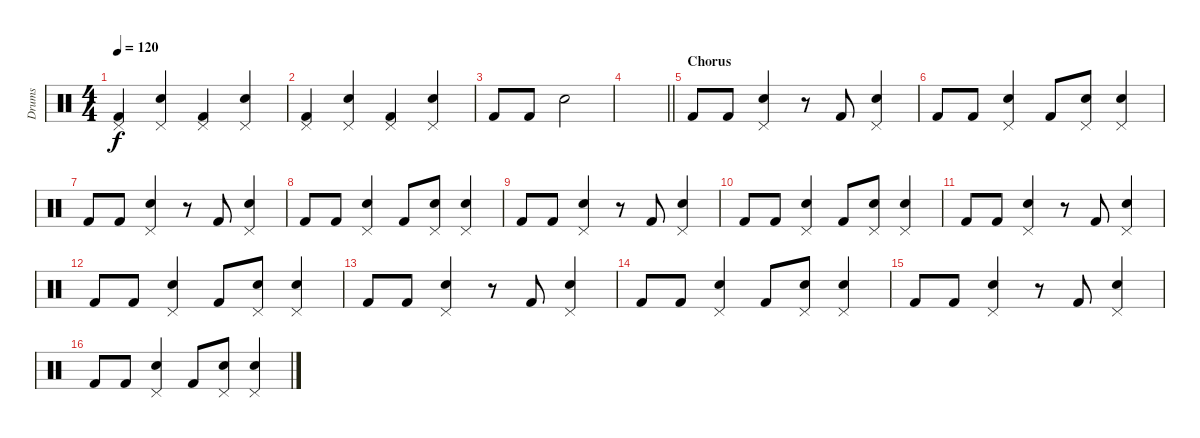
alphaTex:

\track ("Drums" "Drums") {instrument percussion}
\staff {score}
\articulation defaults
\ts (4 4)
\tempo 120
\clef neutral
\ks c
("Pedal Hi-Hat (hit)" "Kick (hit) 2").4{dy f} ("Snare (hit) 2" "Pedal Hi-Hat (hit)").4 ("Pedal Hi-Hat (hit)" "Kick (hit) 2").4 ("Snare (hit) 2" "Pedal Hi-Hat (hit)").4 |
("Pedal Hi-Hat (hit)" "Kick (hit) 2").4 ("Snare (hit) 2" "Pedal Hi-Hat (hit)").4 ("Pedal Hi-Hat (hit)" "Kick (hit) 2").4 ("Snare (hit) 2" "Pedal Hi-Hat (hit)").4 |
"Kick (hit) 2".8 "Kick (hit) 2".8 "Snare (hit) 2".2 |
\barLineRight lightlight
|
\section ("" "Chorus")
"Kick (hit) 2".8 "Kick (hit) 2".8 ("Snare (hit) 2" "Pedal Hi-Hat (hit)").4 r.8 "Kick (hit) 2".8 ("Snare (hit) 2" "Pedal Hi-Hat (hit)").4 |
"Kick (hit) 2".8 "Kick (hit) 2".8 ("Snare (hit) 2" "Pedal Hi-Hat (hit)").4 "Kick (hit) 2".8 ("Snare (hit) 2" "Pedal Hi-Hat (hit)").8 ("Snare (hit) 2" "Pedal Hi-Hat (hit)").4 |
"Kick (hit) 2".8 "Kick (hit) 2".8 ("Snare (hit) 2" "Pedal Hi-Hat (hit)").4 r.8 "Kick (hit) 2".8 ("Snare (hit) 2" "Pedal Hi-Hat (hit)").4 |
"Kick (hit) 2".8 "Kick (hit) 2".8 ("Snare (hit) 2" "Pedal Hi-Hat (hit)").4 "Kick (hit) 2".8 ("Snare (hit) 2" "Pedal Hi-Hat (hit)").8 ("Snare (hit) 2" "Pedal Hi-Hat (hit)").4 |
"Kick (hit) 2".8 "Kick (hit) 2".8 ("Snare (hit) 2" "Pedal Hi-Hat (hit)").4 r.8 "Kick (hit) 2".8 ("Snare (hit) 2" "Pedal Hi-Hat (hit)").4 |
"Kick (hit) 2".8 "Kick (hit) 2".8 ("Snare (hit) 2" "Pedal Hi-Hat (hit)").4 "Kick (hit) 2".8 ("Snare (hit) 2" "Pedal Hi-Hat (hit)").8 ("Snare (hit) 2" "Pedal Hi-Hat (hit)").4 |
"Kick (hit) 2".8 "Kick (hit) 2".8 ("Snare (hit) 2" "Pedal Hi-Hat (hit)").4 r.8 "Kick (hit) 2".8 ("Snare (hit) 2" "Pedal Hi-Hat (hit)").4 |
"Kick (hit) 2".8 "Kick (hit) 2".8 ("Snare (hit) 2" "Pedal Hi-Hat (hit)").4 "Kick (hit) 2".8 ("Snare (hit) 2" "Pedal Hi-Hat (hit)").8 ("Snare (hit) 2" "Pedal Hi-Hat (hit)").4 |
"Kick (hit) 2".8 "Kick (hit) 2".8 ("Snare (hit) 2" "Pedal Hi-Hat (hit)").4 r.8 "Kick (hit) 2".8 ("Snare (hit) 2" "Pedal Hi-Hat (hit)").4 |
"Kick (hit) 2".8 "Kick (hit) 2".8 ("Snare (hit) 2" "Pedal Hi-Hat (hit)").4 "Kick (hit) 2".8 ("Snare (hit) 2" "Pedal Hi-Hat (hit)").8 ("Snare (hit) 2" "Pedal Hi-Hat (hit)").4 |
"Kick (hit) 2".8 "Kick (hit) 2".8 ("Snare (hit) 2" "Pedal Hi-Hat (hit)").4 r.8 "Kick (hit) 2".8 ("Snare (hit) 2" "Pedal Hi-Hat (hit)").4 |
"Kick (hit) 2".8 "Kick (hit) 2".8 ("Snare (hit) 2" "Pedal Hi-Hat (hit)").4 "Kick (hit) 2".8 ("Snare (hit) 2" "Pedal Hi-Hat (hit)").8 ("Snare (hit) 2" "Pedal Hi-Hat (hit)").4
